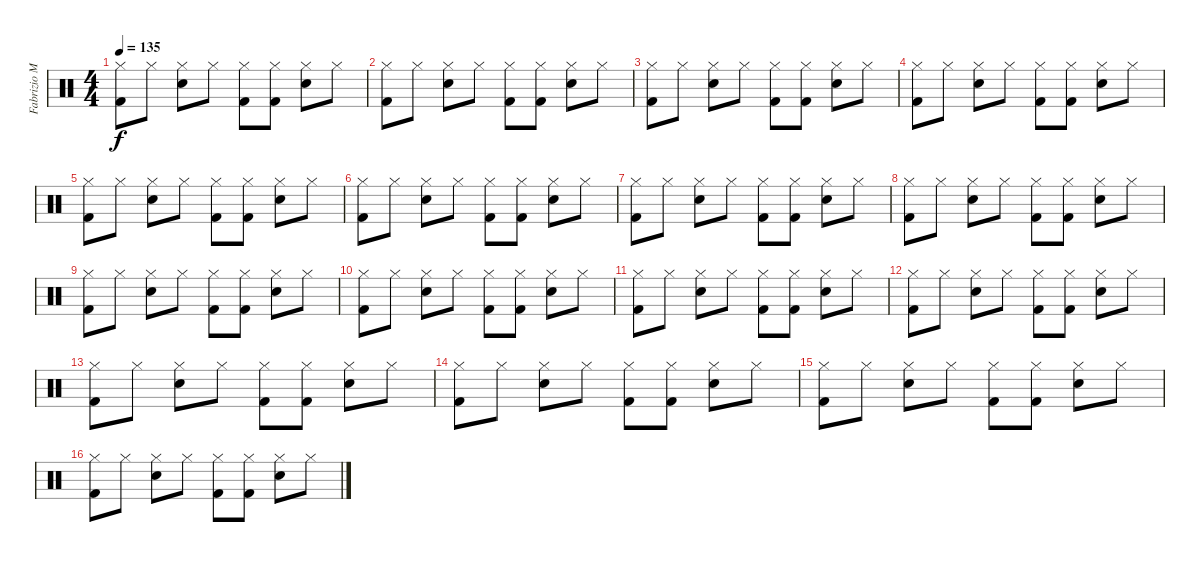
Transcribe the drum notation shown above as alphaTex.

\track ("Fabrizio Moretti" "Fabrizio M") {instrument percussion}
\staff {score}
\articulation defaults
\ts (4 4)
\tempo 135
\clef neutral
\ks c
("Hi-Hat (closed)" "Kick (hit) 2").8{dy f} "Hi-Hat (closed)".8 ("Hi-Hat (closed)" "Electric Snare (hit)").8 "Hi-Hat (closed)".8 ("Hi-Hat (closed)" "Kick (hit) 2").8 ("Hi-Hat (closed)" "Kick (hit) 2").8 ("Hi-Hat (closed)" "Electric Snare (hit)").8 "Hi-Hat (closed)".8 |
("Hi-Hat (closed)" "Kick (hit) 2").8 "Hi-Hat (closed)".8 ("Hi-Hat (closed)" "Electric Snare (hit)").8 "Hi-Hat (closed)".8 ("Hi-Hat (closed)" "Kick (hit) 2").8 ("Hi-Hat (closed)" "Kick (hit) 2").8 ("Hi-Hat (closed)" "Electric Snare (hit)").8 "Hi-Hat (closed)".8 |
("Hi-Hat (closed)" "Kick (hit) 2").8 "Hi-Hat (closed)".8 ("Hi-Hat (closed)" "Electric Snare (hit)").8 "Hi-Hat (closed)".8 ("Hi-Hat (closed)" "Kick (hit) 2").8 ("Hi-Hat (closed)" "Kick (hit) 2").8 ("Hi-Hat (closed)" "Electric Snare (hit)").8 "Hi-Hat (closed)".8 |
("Hi-Hat (closed)" "Kick (hit) 2").8 "Hi-Hat (closed)".8 ("Hi-Hat (closed)" "Electric Snare (hit)").8 "Hi-Hat (closed)".8 ("Hi-Hat (closed)" "Kick (hit) 2").8 ("Hi-Hat (closed)" "Kick (hit) 2").8 ("Hi-Hat (closed)" "Electric Snare (hit)").8 "Hi-Hat (closed)".8 |
("Hi-Hat (closed)" "Kick (hit) 2").8 "Hi-Hat (closed)".8 ("Hi-Hat (closed)" "Electric Snare (hit)").8 "Hi-Hat (closed)".8 ("Hi-Hat (closed)" "Kick (hit) 2").8 ("Hi-Hat (closed)" "Kick (hit) 2").8 ("Hi-Hat (closed)" "Electric Snare (hit)").8 "Hi-Hat (closed)".8 |
("Hi-Hat (closed)" "Kick (hit) 2").8 "Hi-Hat (closed)".8 ("Hi-Hat (closed)" "Electric Snare (hit)").8 "Hi-Hat (closed)".8 ("Hi-Hat (closed)" "Kick (hit) 2").8 ("Hi-Hat (closed)" "Kick (hit) 2").8 ("Hi-Hat (closed)" "Electric Snare (hit)").8 "Hi-Hat (closed)".8 |
("Hi-Hat (closed)" "Kick (hit) 2").8 "Hi-Hat (closed)".8 ("Hi-Hat (closed)" "Electric Snare (hit)").8 "Hi-Hat (closed)".8 ("Hi-Hat (closed)" "Kick (hit) 2").8 ("Hi-Hat (closed)" "Kick (hit) 2").8 ("Hi-Hat (closed)" "Electric Snare (hit)").8 "Hi-Hat (closed)".8 |
("Hi-Hat (closed)" "Kick (hit) 2").8 "Hi-Hat (closed)".8 ("Hi-Hat (closed)" "Electric Snare (hit)").8 "Hi-Hat (closed)".8 ("Hi-Hat (closed)" "Kick (hit) 2").8 ("Hi-Hat (closed)" "Kick (hit) 2").8 ("Hi-Hat (closed)" "Electric Snare (hit)").8 "Hi-Hat (closed)".8 |
("Hi-Hat (closed)" "Kick (hit) 2").8 "Hi-Hat (closed)".8 ("Hi-Hat (closed)" "Electric Snare (hit)").8 "Hi-Hat (closed)".8 ("Hi-Hat (closed)" "Kick (hit) 2").8 ("Hi-Hat (closed)" "Kick (hit) 2").8 ("Hi-Hat (closed)" "Electric Snare (hit)").8 "Hi-Hat (closed)".8 |
("Hi-Hat (closed)" "Kick (hit) 2").8 "Hi-Hat (closed)".8 ("Hi-Hat (closed)" "Electric Snare (hit)").8 "Hi-Hat (closed)".8 ("Hi-Hat (closed)" "Kick (hit) 2").8 ("Hi-Hat (closed)" "Kick (hit) 2").8 ("Hi-Hat (closed)" "Electric Snare (hit)").8 "Hi-Hat (closed)".8 |
("Hi-Hat (closed)" "Kick (hit) 2").8 "Hi-Hat (closed)".8 ("Hi-Hat (closed)" "Electric Snare (hit)").8 "Hi-Hat (closed)".8 ("Hi-Hat (closed)" "Kick (hit) 2").8 ("Hi-Hat (closed)" "Kick (hit) 2").8 ("Hi-Hat (closed)" "Electric Snare (hit)").8 "Hi-Hat (closed)".8 |
("Hi-Hat (closed)" "Kick (hit) 2").8 "Hi-Hat (closed)".8 ("Hi-Hat (closed)" "Electric Snare (hit)").8 "Hi-Hat (closed)".8 ("Hi-Hat (closed)" "Kick (hit) 2").8 ("Hi-Hat (closed)" "Kick (hit) 2").8 ("Hi-Hat (closed)" "Electric Snare (hit)").8 "Hi-Hat (closed)".8 |
("Hi-Hat (closed)" "Kick (hit) 2").8 "Hi-Hat (closed)".8 ("Hi-Hat (closed)" "Electric Snare (hit)").8 "Hi-Hat (closed)".8 ("Hi-Hat (closed)" "Kick (hit) 2").8 ("Hi-Hat (closed)" "Kick (hit) 2").8 ("Hi-Hat (closed)" "Electric Snare (hit)").8 "Hi-Hat (closed)".8 |
("Hi-Hat (closed)" "Kick (hit) 2").8 "Hi-Hat (closed)".8 ("Hi-Hat (closed)" "Electric Snare (hit)").8 "Hi-Hat (closed)".8 ("Hi-Hat (closed)" "Kick (hit) 2").8 ("Hi-Hat (closed)" "Kick (hit) 2").8 ("Hi-Hat (closed)" "Electric Snare (hit)").8 "Hi-Hat (closed)".8 |
("Hi-Hat (closed)" "Kick (hit) 2").8 "Hi-Hat (closed)".8 ("Hi-Hat (closed)" "Electric Snare (hit)").8 "Hi-Hat (closed)".8 ("Hi-Hat (closed)" "Kick (hit) 2").8 ("Hi-Hat (closed)" "Kick (hit) 2").8 ("Hi-Hat (closed)" "Electric Snare (hit)").8 "Hi-Hat (closed)".8 |
("Hi-Hat (closed)" "Kick (hit) 2").8 "Hi-Hat (closed)".8 ("Hi-Hat (closed)" "Electric Snare (hit)").8 "Hi-Hat (closed)".8 ("Hi-Hat (closed)" "Kick (hit) 2").8 ("Hi-Hat (closed)" "Kick (hit) 2").8 ("Hi-Hat (closed)" "Electric Snare (hit)").8 "Hi-Hat (closed)".8
